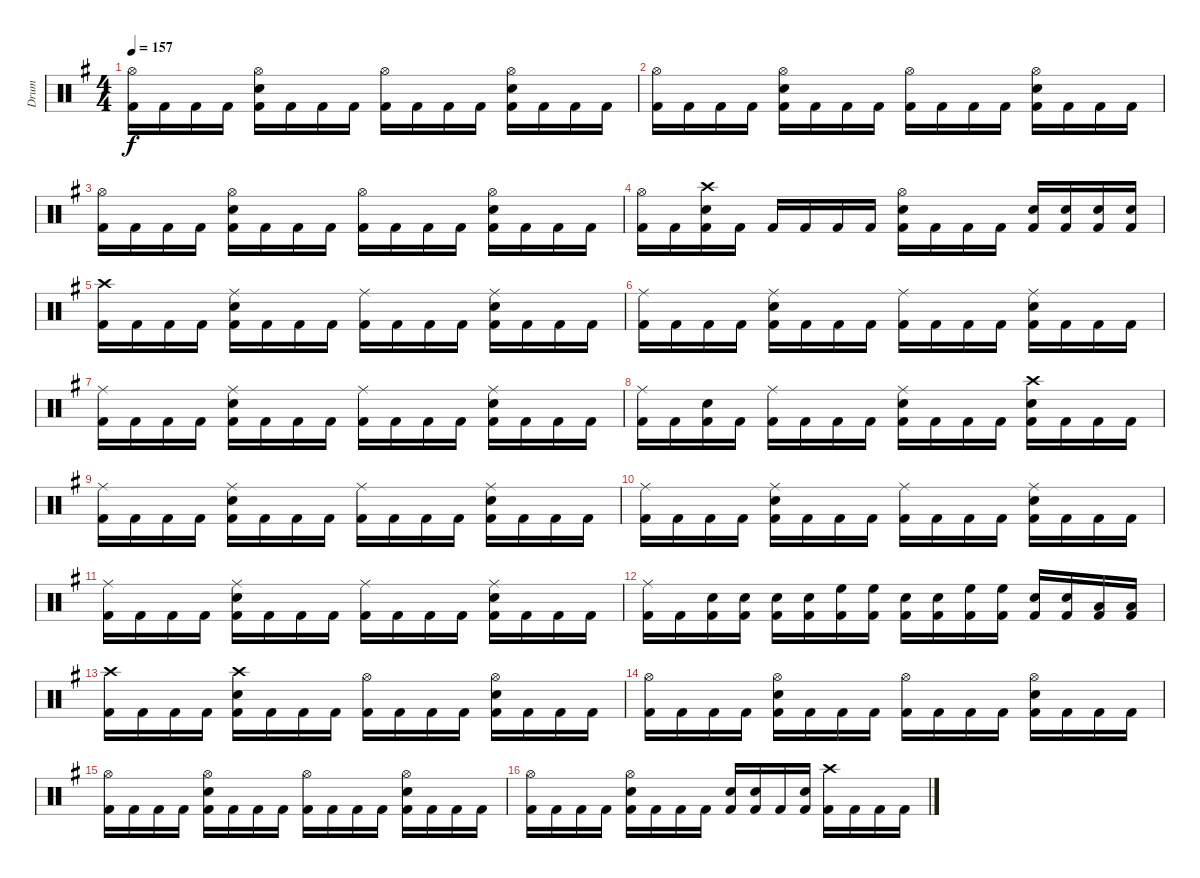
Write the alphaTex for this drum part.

\track ("Drum" "Drum") {instrument percussion}
\staff {score}
\articulation defaults
\ts (4 4)
\tempo 157
\clef neutral
\ks eminor
("Hi-Hat (open)" "Kick (hit) 2").16{dy f} "Kick (hit) 2".16 "Kick (hit) 2".16 "Kick (hit) 2".16 ("Hi-Hat (open)" "Snare (hit) 2" "Kick (hit) 2").16 "Kick (hit) 2".16 "Kick (hit) 2".16 "Kick (hit) 2".16 ("Hi-Hat (open)" "Kick (hit) 2").16 "Kick (hit) 2".16 "Kick (hit) 2".16 "Kick (hit) 2".16 ("Hi-Hat (open)" "Snare (hit) 2" "Kick (hit) 2").16 "Kick (hit) 2".16 "Kick (hit) 2".16 "Kick (hit) 2".16 |
("Hi-Hat (open)" "Kick (hit) 2").16 "Kick (hit) 2".16 "Kick (hit) 2".16 "Kick (hit) 2".16 ("Hi-Hat (open)" "Snare (hit) 2" "Kick (hit) 2").16 "Kick (hit) 2".16 "Kick (hit) 2".16 "Kick (hit) 2".16 ("Hi-Hat (open)" "Kick (hit) 2").16 "Kick (hit) 2".16 "Kick (hit) 2".16 "Kick (hit) 2".16 ("Hi-Hat (open)" "Snare (hit) 2" "Kick (hit) 2").16 "Kick (hit) 2".16 "Kick (hit) 2".16 "Kick (hit) 2".16 |
("Hi-Hat (open)" "Kick (hit) 2").16 "Kick (hit) 2".16 "Kick (hit) 2".16 "Kick (hit) 2".16 ("Hi-Hat (open)" "Snare (hit) 2" "Kick (hit) 2").16 "Kick (hit) 2".16 "Kick (hit) 2".16 "Kick (hit) 2".16 ("Hi-Hat (open)" "Kick (hit) 2").16 "Kick (hit) 2".16 "Kick (hit) 2".16 "Kick (hit) 2".16 ("Hi-Hat (open)" "Snare (hit) 2" "Kick (hit) 2").16 "Kick (hit) 2".16 "Kick (hit) 2".16 "Kick (hit) 2".16 |
("Hi-Hat (open)" "Kick (hit) 2").16 "Kick (hit) 2".16 ("Crash high (hit)" "Snare (hit) 2" "Kick (hit) 2").16 "Kick (hit) 2".16 "Kick (hit) 2".16 "Kick (hit) 2".16 "Kick (hit) 2".16 "Kick (hit) 2".16 ("Hi-Hat (open)" "Snare (hit) 2" "Kick (hit) 2").16 "Kick (hit) 2".16 "Kick (hit) 2".16 "Kick (hit) 2".16 ("Snare (hit) 2" "Kick (hit) 2").16 ("Snare (hit) 2" "Kick (hit) 2").16 ("Snare (hit) 2" "Kick (hit) 2").16 ("Snare (hit) 2" "Kick (hit) 2").16 |
("Crash high (hit)" "Kick (hit) 2").16 "Kick (hit) 2".16 "Kick (hit) 2".16 "Kick (hit) 2".16 ("Ride (middle)" "Snare (hit) 2" "Kick (hit) 2").16 "Kick (hit) 2".16 "Kick (hit) 2".16 "Kick (hit) 2".16 ("Ride (middle)" "Kick (hit) 2").16 "Kick (hit) 2".16 "Kick (hit) 2".16 "Kick (hit) 2".16 ("Ride (middle)" "Snare (hit) 2" "Kick (hit) 2").16 "Kick (hit) 2".16 "Kick (hit) 2".16 "Kick (hit) 2".16 |
("Ride (middle)" "Kick (hit) 2").16 "Kick (hit) 2".16 "Kick (hit) 2".16 "Kick (hit) 2".16 ("Ride (middle)" "Snare (hit) 2" "Kick (hit) 2").16 "Kick (hit) 2".16 "Kick (hit) 2".16 "Kick (hit) 2".16 ("Ride (middle)" "Kick (hit) 2").16 "Kick (hit) 2".16 "Kick (hit) 2".16 "Kick (hit) 2".16 ("Ride (middle)" "Snare (hit) 2" "Kick (hit) 2").16 "Kick (hit) 2".16 "Kick (hit) 2".16 "Kick (hit) 2".16 |
("Ride (middle)" "Kick (hit) 2").16 "Kick (hit) 2".16 "Kick (hit) 2".16 "Kick (hit) 2".16 ("Ride (middle)" "Snare (hit) 2" "Kick (hit) 2").16 "Kick (hit) 2".16 "Kick (hit) 2".16 "Kick (hit) 2".16 ("Ride (middle)" "Kick (hit) 2").16 "Kick (hit) 2".16 "Kick (hit) 2".16 "Kick (hit) 2".16 ("Ride (middle)" "Snare (hit) 2" "Kick (hit) 2").16 "Kick (hit) 2".16 "Kick (hit) 2".16 "Kick (hit) 2".16 |
("Ride (middle)" "Kick (hit) 2").16 "Kick (hit) 2".16 ("Snare (hit) 2" "Kick (hit) 2").16 "Kick (hit) 2".16 ("Ride (middle)" "Kick (hit) 2").16 "Kick (hit) 2".16 "Kick (hit) 2".16 "Kick (hit) 2".16 ("Ride (middle)" "Snare (hit) 2" "Kick (hit) 2").16 "Kick (hit) 2".16 "Kick (hit) 2".16 "Kick (hit) 2".16 ("Crash high (hit)" "Snare (hit) 2" "Kick (hit) 2").16 "Kick (hit) 2".16 "Kick (hit) 2".16 "Kick (hit) 2".16 |
("Ride (middle)" "Kick (hit) 2").16 "Kick (hit) 2".16 "Kick (hit) 2".16 "Kick (hit) 2".16 ("Ride (middle)" "Snare (hit) 2" "Kick (hit) 2").16 "Kick (hit) 2".16 "Kick (hit) 2".16 "Kick (hit) 2".16 ("Ride (middle)" "Kick (hit) 2").16 "Kick (hit) 2".16 "Kick (hit) 2".16 "Kick (hit) 2".16 ("Ride (middle)" "Snare (hit) 2" "Kick (hit) 2").16 "Kick (hit) 2".16 "Kick (hit) 2".16 "Kick (hit) 2".16 |
("Ride (middle)" "Kick (hit) 2").16 "Kick (hit) 2".16 "Kick (hit) 2".16 "Kick (hit) 2".16 ("Ride (middle)" "Snare (hit) 2" "Kick (hit) 2").16 "Kick (hit) 2".16 "Kick (hit) 2".16 "Kick (hit) 2".16 ("Ride (middle)" "Kick (hit) 2").16 "Kick (hit) 2".16 "Kick (hit) 2".16 "Kick (hit) 2".16 ("Ride (middle)" "Snare (hit) 2" "Kick (hit) 2").16 "Kick (hit) 2".16 "Kick (hit) 2".16 "Kick (hit) 2".16 |
("Ride (middle)" "Kick (hit) 2").16 "Kick (hit) 2".16 "Kick (hit) 2".16 "Kick (hit) 2".16 ("Ride (middle)" "Snare (hit) 2" "Kick (hit) 2").16 "Kick (hit) 2".16 "Kick (hit) 2".16 "Kick (hit) 2".16 ("Ride (middle)" "Kick (hit) 2").16 "Kick (hit) 2".16 "Kick (hit) 2".16 "Kick (hit) 2".16 ("Ride (middle)" "Snare (hit) 2" "Kick (hit) 2").16 "Kick (hit) 2".16 "Kick (hit) 2".16 "Kick (hit) 2".16 |
("Ride (middle)" "Kick (hit) 2").16 "Kick (hit) 2".16 ("Snare (hit) 2" "Kick (hit) 2").16 ("Snare (hit) 2" "Kick (hit) 2").16 ("Snare (hit) 2" "Kick (hit) 2").16 ("Snare (hit) 2" "Kick (hit) 2").16 ("High Floor Tom (hit)" "Kick (hit) 2").16 ("High Floor Tom (hit)" "Kick (hit) 2").16 ("Snare (hit) 2" "Kick (hit) 2").16 ("Snare (hit) 2" "Kick (hit) 2").16 ("High Floor Tom (hit)" "Kick (hit) 2").16 ("High Floor Tom (hit)" "Kick (hit) 2").16 ("Snare (hit) 2" "Kick (hit) 2").16 ("Snare (hit) 2" "Kick (hit) 2").16 ("Low Tom (hit)" "Kick (hit) 2").16 ("Low Tom (hit)" "Kick (hit) 2").16 |
("Crash high (hit)" "Kick (hit) 2").16 "Kick (hit) 2".16 "Kick (hit) 2".16 "Kick (hit) 2".16 ("Crash high (hit)" "Snare (hit) 2" "Kick (hit) 2").16 "Kick (hit) 2".16 "Kick (hit) 2".16 "Kick (hit) 2".16 ("Hi-Hat (open)" "Kick (hit) 2").16 "Kick (hit) 2".16 "Kick (hit) 2".16 "Kick (hit) 2".16 ("Hi-Hat (open)" "Snare (hit) 2" "Kick (hit) 2").16 "Kick (hit) 2".16 "Kick (hit) 2".16 "Kick (hit) 2".16 |
("Hi-Hat (open)" "Kick (hit) 2").16 "Kick (hit) 2".16 "Kick (hit) 2".16 "Kick (hit) 2".16 ("Hi-Hat (open)" "Snare (hit) 2" "Kick (hit) 2").16 "Kick (hit) 2".16 "Kick (hit) 2".16 "Kick (hit) 2".16 ("Hi-Hat (open)" "Kick (hit) 2").16 "Kick (hit) 2".16 "Kick (hit) 2".16 "Kick (hit) 2".16 ("Hi-Hat (open)" "Snare (hit) 2" "Kick (hit) 2").16 "Kick (hit) 2".16 "Kick (hit) 2".16 "Kick (hit) 2".16 |
("Hi-Hat (open)" "Kick (hit) 2").16 "Kick (hit) 2".16 "Kick (hit) 2".16 "Kick (hit) 2".16 ("Hi-Hat (open)" "Snare (hit) 2" "Kick (hit) 2").16 "Kick (hit) 2".16 "Kick (hit) 2".16 "Kick (hit) 2".16 ("Hi-Hat (open)" "Kick (hit) 2").16 "Kick (hit) 2".16 "Kick (hit) 2".16 "Kick (hit) 2".16 ("Hi-Hat (open)" "Snare (hit) 2" "Kick (hit) 2").16 "Kick (hit) 2".16 "Kick (hit) 2".16 "Kick (hit) 2".16 |
("Hi-Hat (open)" "Kick (hit) 2").16 "Kick (hit) 2".16 "Kick (hit) 2".16 "Kick (hit) 2".16 ("Hi-Hat (open)" "Snare (hit) 2" "Kick (hit) 2").16 "Kick (hit) 2".16 "Kick (hit) 2".16 "Kick (hit) 2".16 ("Snare (hit) 2" "Kick (hit) 2").16 ("Snare (hit) 2" "Kick (hit) 2").16 "Kick (hit) 2".16 ("Snare (hit) 2" "Kick (hit) 2").16 ("Crash high (hit)" "Kick (hit) 2").16 "Kick (hit) 2".16 "Kick (hit) 2".16 "Kick (hit) 2".16
